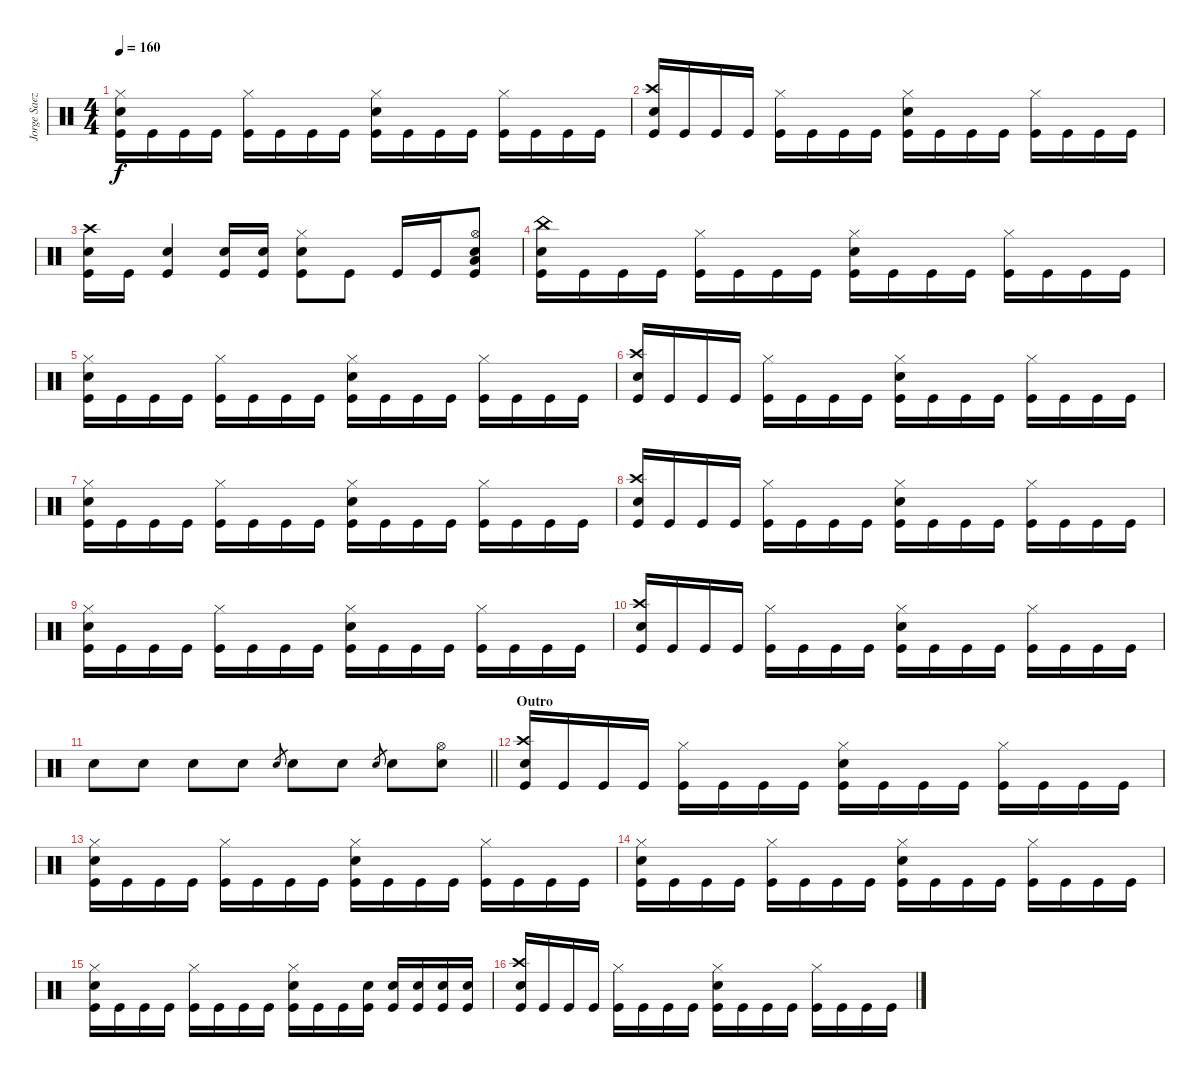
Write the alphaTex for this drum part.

\track ("Jorge Saez" "Jorge Saez") {instrument percussion}
\staff {score}
\articulation defaults
\ts (4 4)
\tempo 160
\clef neutral
\ks c
("Hi-Hat (closed)" "Snare (hit) 2" "Kick (hit)").16{dy f} "Kick (hit)".16 "Kick (hit)".16 "Kick (hit)".16 ("Hi-Hat (closed)" "Kick (hit)").16 "Kick (hit)".16 "Kick (hit)".16 "Kick (hit)".16 ("Hi-Hat (closed)" "Snare (hit) 2" "Kick (hit)").16 "Kick (hit)".16 "Kick (hit)".16 "Kick (hit)".16 ("Hi-Hat (closed)" "Kick (hit)").16 "Kick (hit)".16 "Kick (hit)".16 "Kick (hit)".16 |
("Crash high (hit)" "Electric Snare (hit)" "Kick (hit)").16 "Kick (hit)".16 "Kick (hit)".16 "Kick (hit)".16 ("Hi-Hat (closed)" "Kick (hit)").16 "Kick (hit)".16 "Kick (hit)".16 "Kick (hit)".16 ("Hi-Hat (closed)" "Snare (hit) 2" "Kick (hit)").16 "Kick (hit)".16 "Kick (hit)".16 "Kick (hit)".16 ("Hi-Hat (closed)" "Kick (hit)").16 "Kick (hit)".16 "Kick (hit)".16 "Kick (hit)".16 |
("Crash high (hit)" "Snare (hit) 2" "Kick (hit)").16 "Kick (hit)".16 ("Snare (hit) 2" "Kick (hit)").4 ("Snare (hit) 2" "Kick (hit)").16 ("Snare (hit) 2" "Kick (hit)").16 ("Hi-Hat (closed)" "Snare (hit) 2" "Kick (hit)").8 "Kick (hit)".8 "Kick (hit)".16 "Kick (hit)".16 ("Hi-Hat (open)" "Low Floor Tom (hit)" "Snare (hit) 2" "Kick (hit)").8 |
("China (hit)" "Electric Snare (hit)" "Kick (hit)").16 "Kick (hit)".16 "Kick (hit)".16 "Kick (hit)".16 ("Hi-Hat (closed)" "Kick (hit)").16 "Kick (hit)".16 "Kick (hit)".16 "Kick (hit)".16 ("Hi-Hat (closed)" "Snare (hit) 2" "Kick (hit)").16 "Kick (hit)".16 "Kick (hit)".16 "Kick (hit)".16 ("Hi-Hat (closed)" "Kick (hit)").16 "Kick (hit)".16 "Kick (hit)".16 "Kick (hit)".16 |
("Hi-Hat (closed)" "Snare (hit) 2" "Kick (hit)").16 "Kick (hit)".16 "Kick (hit)".16 "Kick (hit)".16 ("Hi-Hat (closed)" "Kick (hit)").16 "Kick (hit)".16 "Kick (hit)".16 "Kick (hit)".16 ("Hi-Hat (closed)" "Snare (hit) 2" "Kick (hit)").16 "Kick (hit)".16 "Kick (hit)".16 "Kick (hit)".16 ("Hi-Hat (closed)" "Kick (hit)").16 "Kick (hit)".16 "Kick (hit)".16 "Kick (hit)".16 |
("Crash high (hit)" "Electric Snare (hit)" "Kick (hit)").16 "Kick (hit)".16 "Kick (hit)".16 "Kick (hit)".16 ("Hi-Hat (closed)" "Kick (hit)").16 "Kick (hit)".16 "Kick (hit)".16 "Kick (hit)".16 ("Hi-Hat (closed)" "Snare (hit) 2" "Kick (hit)").16 "Kick (hit)".16 "Kick (hit)".16 "Kick (hit)".16 ("Hi-Hat (closed)" "Kick (hit)").16 "Kick (hit)".16 "Kick (hit)".16 "Kick (hit)".16 |
("Hi-Hat (closed)" "Snare (hit) 2" "Kick (hit)").16 "Kick (hit)".16 "Kick (hit)".16 "Kick (hit)".16 ("Hi-Hat (closed)" "Kick (hit)").16 "Kick (hit)".16 "Kick (hit)".16 "Kick (hit)".16 ("Hi-Hat (closed)" "Snare (hit) 2" "Kick (hit)").16 "Kick (hit)".16 "Kick (hit)".16 "Kick (hit)".16 ("Hi-Hat (closed)" "Kick (hit)").16 "Kick (hit)".16 "Kick (hit)".16 "Kick (hit)".16 |
("Crash high (hit)" "Electric Snare (hit)" "Kick (hit)").16 "Kick (hit)".16 "Kick (hit)".16 "Kick (hit)".16 ("Hi-Hat (closed)" "Kick (hit)").16 "Kick (hit)".16 "Kick (hit)".16 "Kick (hit)".16 ("Hi-Hat (closed)" "Snare (hit) 2" "Kick (hit)").16 "Kick (hit)".16 "Kick (hit)".16 "Kick (hit)".16 ("Hi-Hat (closed)" "Kick (hit)").16 "Kick (hit)".16 "Kick (hit)".16 "Kick (hit)".16 |
("Hi-Hat (closed)" "Snare (hit) 2" "Kick (hit)").16 "Kick (hit)".16 "Kick (hit)".16 "Kick (hit)".16 ("Hi-Hat (closed)" "Kick (hit)").16 "Kick (hit)".16 "Kick (hit)".16 "Kick (hit)".16 ("Hi-Hat (closed)" "Snare (hit) 2" "Kick (hit)").16 "Kick (hit)".16 "Kick (hit)".16 "Kick (hit)".16 ("Hi-Hat (closed)" "Kick (hit)").16 "Kick (hit)".16 "Kick (hit)".16 "Kick (hit)".16 |
("Crash high (hit)" "Electric Snare (hit)" "Kick (hit)").16 "Kick (hit)".16 "Kick (hit)".16 "Kick (hit)".16 ("Hi-Hat (closed)" "Kick (hit)").16 "Kick (hit)".16 "Kick (hit)".16 "Kick (hit)".16 ("Hi-Hat (closed)" "Snare (hit) 2" "Kick (hit)").16 "Kick (hit)".16 "Kick (hit)".16 "Kick (hit)".16 ("Hi-Hat (closed)" "Kick (hit)").16 "Kick (hit)".16 "Kick (hit)".16 "Kick (hit)".16 |
\barLineRight lightlight "Electric Snare (hit)".8 "Electric Snare (hit)".8 "Electric Snare (hit)".8 "Electric Snare (hit)".8 "Electric Snare (hit)".8{gr} "Electric Snare (hit)".8 "Electric Snare (hit)".8 "Electric Snare (hit)".8{gr} "Electric Snare (hit)".8
("Hi-Hat (open)" "Electric Snare (hit)").8 |
\section ("" "Outro")
("Crash high (hit)" "Electric Snare (hit)" "Kick (hit)").16 "Kick (hit)".16 "Kick (hit)".16 "Kick (hit)".16 ("Hi-Hat (closed)" "Kick (hit)").16 "Kick (hit)".16 "Kick (hit)".16 "Kick (hit)".16 ("Hi-Hat (closed)" "Snare (hit) 2" "Kick (hit)").16 "Kick (hit)".16 "Kick (hit)".16 "Kick (hit)".16 ("Hi-Hat (closed)" "Kick (hit)").16 "Kick (hit)".16 "Kick (hit)".16 "Kick (hit)".16 |
("Hi-Hat (closed)" "Snare (hit) 2" "Kick (hit)").16 "Kick (hit)".16 "Kick (hit)".16 "Kick (hit)".16 ("Hi-Hat (closed)" "Kick (hit)").16 "Kick (hit)".16 "Kick (hit)".16 "Kick (hit)".16 ("Hi-Hat (closed)" "Snare (hit) 2" "Kick (hit)").16 "Kick (hit)".16 "Kick (hit)".16 "Kick (hit)".16 ("Hi-Hat (closed)" "Kick (hit)").16 "Kick (hit)".16 "Kick (hit)".16 "Kick (hit)".16 |
("Hi-Hat (closed)" "Electric Snare (hit)" "Kick (hit)").16 "Kick (hit)".16 "Kick (hit)".16 "Kick (hit)".16 ("Hi-Hat (closed)" "Kick (hit)").16 "Kick (hit)".16 "Kick (hit)".16 "Kick (hit)".16 ("Hi-Hat (closed)" "Snare (hit) 2" "Kick (hit)").16 "Kick (hit)".16 "Kick (hit)".16 "Kick (hit)".16 ("Hi-Hat (closed)" "Kick (hit)").16 "Kick (hit)".16 "Kick (hit)".16 "Kick (hit)".16 |
("Hi-Hat (closed)" "Snare (hit) 2" "Kick (hit)").16 "Kick (hit)".16 "Kick (hit)".16 "Kick (hit)".16 ("Hi-Hat (closed)" "Kick (hit)").16 "Kick (hit)".16 "Kick (hit)".16 "Kick (hit)".16 ("Hi-Hat (closed)" "Snare (hit) 2" "Kick (hit)").16 "Kick (hit)".16 "Kick (hit)".16 ("Electric Snare (hit)" "Kick (hit)").16 ("Electric Snare (hit)" "Kick (hit)").16 ("Electric Snare (hit)" "Kick (hit)").16 ("Electric Snare (hit)" "Kick (hit)").16 ("Electric Snare (hit)" "Kick (hit)").16 |
("Crash high (hit)" "Electric Snare (hit)" "Kick (hit)").16 "Kick (hit)".16 "Kick (hit)".16 "Kick (hit)".16 ("Hi-Hat (closed)" "Kick (hit)").16 "Kick (hit)".16 "Kick (hit)".16 "Kick (hit)".16 ("Hi-Hat (closed)" "Snare (hit) 2" "Kick (hit)").16 "Kick (hit)".16 "Kick (hit)".16 "Kick (hit)".16 ("Hi-Hat (closed)" "Kick (hit)").16 "Kick (hit)".16 "Kick (hit)".16 "Kick (hit)".16
